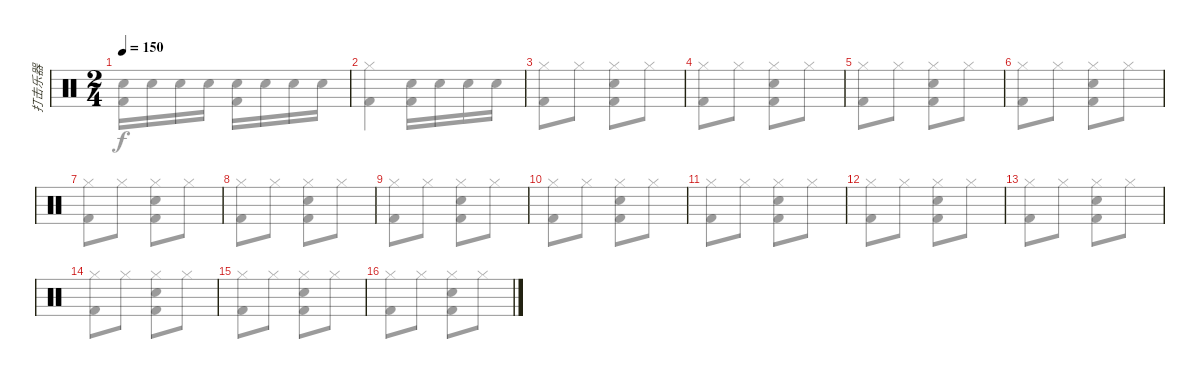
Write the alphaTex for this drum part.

\track ("打击乐器" "打击乐器") {instrument percussion bank 10}
\staff {score}
\articulation defaults
\voice
\ts (2 4)
\tempo 150
\clef neutral
\ks c
|
|
|
|
|
|
|
|
|
|
|
|
|
|
|
\voice
\clef neutral
\ks c
("Electric Snare (hit)" "Kick (hit) 2").16{dy f} "Electric Snare (hit)".16 "Electric Snare (hit)".16 "Electric Snare (hit)".16 ("Electric Snare (hit)" "Kick (hit) 2").16 "Electric Snare (hit)".16 "Electric Snare (hit)".16 "Electric Snare (hit)".16 |
("Hi-Hat (closed)" "Kick (hit) 2").4 ("Electric Snare (hit)" "Kick (hit) 2").16 "Electric Snare (hit)".16 "Electric Snare (hit)".16 "Electric Snare (hit)".16 |
("Hi-Hat (closed)" "Kick (hit) 2").8 "Hi-Hat (closed)".8 ("Hi-Hat (closed)" "Electric Snare (hit)" "Kick (hit) 2").8 "Hi-Hat (closed)".8 |
("Hi-Hat (closed)" "Kick (hit) 2").8 "Hi-Hat (closed)".8 ("Hi-Hat (closed)" "Electric Snare (hit)" "Kick (hit) 2").8 "Hi-Hat (closed)".8 |
("Hi-Hat (closed)" "Kick (hit) 2").8 "Hi-Hat (closed)".8 ("Hi-Hat (closed)" "Electric Snare (hit)" "Kick (hit) 2").8 "Hi-Hat (closed)".8 |
("Hi-Hat (closed)" "Kick (hit) 2").8 "Hi-Hat (closed)".8 ("Hi-Hat (closed)" "Electric Snare (hit)" "Kick (hit) 2").8 "Hi-Hat (closed)".8 |
("Hi-Hat (closed)" "Kick (hit) 2").8 "Hi-Hat (closed)".8 ("Hi-Hat (closed)" "Electric Snare (hit)" "Kick (hit) 2").8 "Hi-Hat (closed)".8 |
("Hi-Hat (closed)" "Kick (hit) 2").8 "Hi-Hat (closed)".8 ("Hi-Hat (closed)" "Electric Snare (hit)" "Kick (hit) 2").8 "Hi-Hat (closed)".8 |
("Hi-Hat (closed)" "Kick (hit) 2").8 "Hi-Hat (closed)".8 ("Hi-Hat (closed)" "Electric Snare (hit)" "Kick (hit) 2").8 "Hi-Hat (closed)".8 |
("Hi-Hat (closed)" "Kick (hit) 2").8 "Hi-Hat (closed)".8 ("Hi-Hat (closed)" "Electric Snare (hit)" "Kick (hit) 2").8 "Hi-Hat (closed)".8 |
("Hi-Hat (closed)" "Kick (hit) 2").8 "Hi-Hat (closed)".8 ("Hi-Hat (closed)" "Electric Snare (hit)" "Kick (hit) 2").8 "Hi-Hat (closed)".8 |
("Hi-Hat (closed)" "Kick (hit) 2").8 "Hi-Hat (closed)".8 ("Hi-Hat (closed)" "Electric Snare (hit)" "Kick (hit) 2").8 "Hi-Hat (closed)".8 |
("Hi-Hat (closed)" "Kick (hit) 2").8 "Hi-Hat (closed)".8 ("Hi-Hat (closed)" "Electric Snare (hit)" "Kick (hit) 2").8 "Hi-Hat (closed)".8 |
("Hi-Hat (closed)" "Kick (hit) 2").8 "Hi-Hat (closed)".8 ("Hi-Hat (closed)" "Electric Snare (hit)" "Kick (hit) 2").8 "Hi-Hat (closed)".8 |
("Hi-Hat (closed)" "Kick (hit) 2").8 "Hi-Hat (closed)".8 ("Hi-Hat (closed)" "Electric Snare (hit)" "Kick (hit) 2").8 "Hi-Hat (closed)".8 |
("Hi-Hat (closed)" "Kick (hit) 2").8 "Hi-Hat (closed)".8 ("Hi-Hat (closed)" "Electric Snare (hit)" "Kick (hit) 2").8 "Hi-Hat (closed)".8
